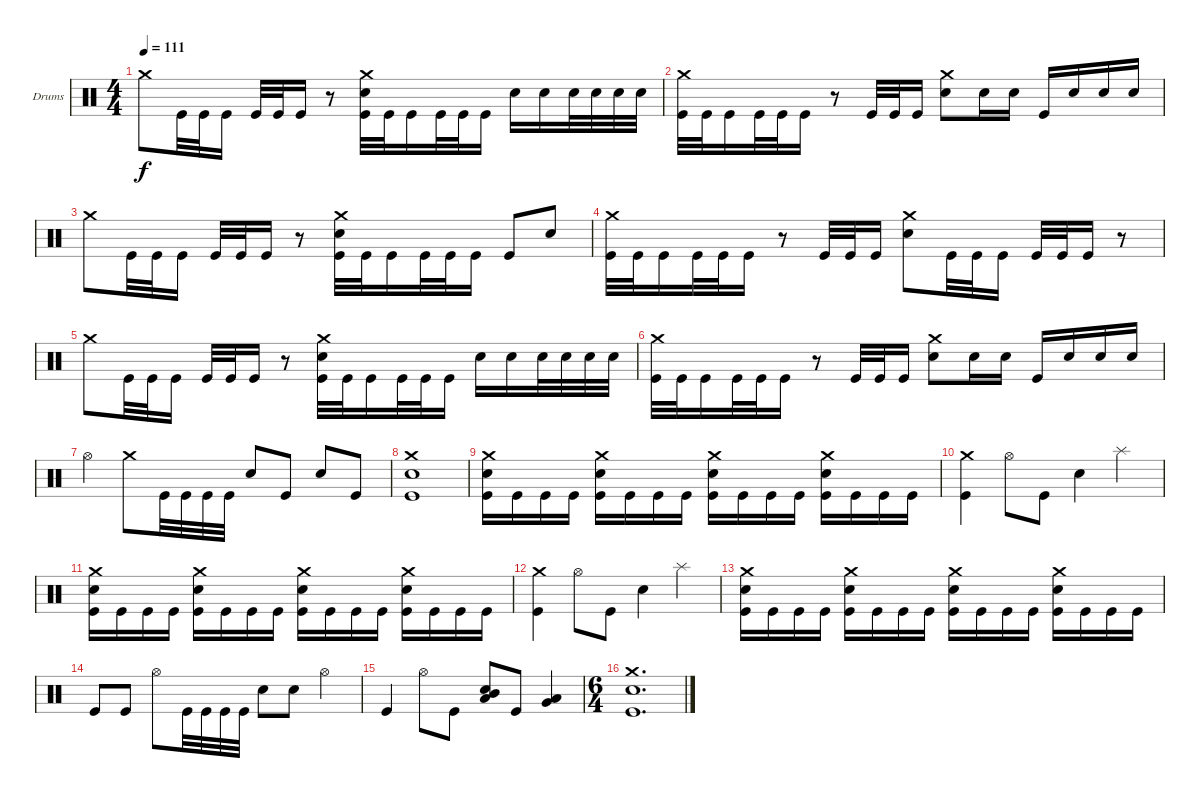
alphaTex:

\bracketExtendMode groupsimilarinstruments
\firstSystemTrackNameOrientation horizontal
\otherSystemsTrackNameOrientation horizontal
\track ("Drumkit" "Drums") {instrument percussion}
\staff {score}
\articulation defaults
\ts (4 4)
\tempo 111
\clef neutral
\ks c "Crash medium (hit)".8{dy f} "Kick (hit)".32 "Kick (hit)".32 "Kick (hit)".16 "Kick (hit)".32 "Kick (hit)".32 "Kick (hit)".16
r.8 ("Crash medium (hit)" "Snare (hit) 2" "Kick (hit)").32 "Kick (hit)".32 "Kick (hit)".16 "Kick (hit)".32 "Kick (hit)".32 "Kick (hit)".16 "Snare (hit) 2".16 "Snare (hit) 2".16 "Snare (hit) 2".32 "Snare (hit) 2".32 "Snare (hit) 2".32 "Snare (hit) 2".32 |
("Crash medium (hit)" "Kick (hit)").32 "Kick (hit)".32 "Kick (hit)".16 "Kick (hit)".32 "Kick (hit)".32 "Kick (hit)".16 r.8 "Kick (hit)".32 "Kick (hit)".32 "Kick (hit)".16 ("Crash medium (hit)" "Snare (hit) 2").8 "Snare (hit) 2".16 "Snare (hit) 2".16 "Kick (hit)".16 "Snare (hit) 2".16 "Snare (hit) 2".16 "Snare (hit) 2".16 |
"Crash medium (hit)".8 "Kick (hit)".32 "Kick (hit)".32 "Kick (hit)".16 "Kick (hit)".32 "Kick (hit)".32 "Kick (hit)".16 r.8 ("Crash medium (hit)" "Snare (hit) 2" "Kick (hit)").32 "Kick (hit)".32 "Kick (hit)".16 "Kick (hit)".32 "Kick (hit)".32 "Kick (hit)".16 "Kick (hit)".8 "Snare (hit) 2".8 |
("Crash medium (hit)" "Kick (hit)").32 "Kick (hit)".32 "Kick (hit)".16 "Kick (hit)".32 "Kick (hit)".32 "Kick (hit)".16 r.8 "Kick (hit)".32 "Kick (hit)".32 "Kick (hit)".16 ("Crash medium (hit)" "Snare (hit) 2").8 "Kick (hit)".32 "Kick (hit)".32 "Kick (hit)".16 "Kick (hit)".32 "Kick (hit)".32 "Kick (hit)".16 r.8 |
"Crash medium (hit)".8 "Kick (hit)".32 "Kick (hit)".32 "Kick (hit)".16 "Kick (hit)".32 "Kick (hit)".32 "Kick (hit)".16 r.8 ("Crash medium (hit)" "Snare (hit) 2" "Kick (hit)").32 "Kick (hit)".32 "Kick (hit)".16 "Kick (hit)".32 "Kick (hit)".32 "Kick (hit)".16 "Snare (hit) 2".16 "Snare (hit) 2".16 "Snare (hit) 2".32 "Snare (hit) 2".32 "Snare (hit) 2".32 "Snare (hit) 2".32 |
("Crash medium (hit)" "Kick (hit)").32 "Kick (hit)".32 "Kick (hit)".16 "Kick (hit)".32 "Kick (hit)".32 "Kick (hit)".16 r.8 "Kick (hit)".32 "Kick (hit)".32 "Kick (hit)".16 ("Crash medium (hit)" "Snare (hit) 2").8 "Snare (hit) 2".16 "Snare (hit) 2".16 "Kick (hit)".16 "Snare (hit) 2".16 "Snare (hit) 2".16 "Snare (hit) 2".16 |
"Hi-Hat (open)".4 "Crash medium (hit)".8 "Kick (hit)".32 "Kick (hit)".32 "Kick (hit)".32 "Kick (hit)".32 "Snare (hit) 2".8 "Kick (hit)".8 "Snare (hit) 2".8 "Kick (hit)".8 |
("Crash medium (hit)" "Snare (hit) 2" "Kick (hit)").1 |
("Crash medium (hit)" "Snare (hit) 2" "Kick (hit)").16 "Kick (hit)".16 "Kick (hit)".16 "Kick (hit)".16 ("Crash medium (hit)" "Snare (hit) 2" "Kick (hit)").16 "Kick (hit)".16 "Kick (hit)".16 "Kick (hit)".16 ("Crash medium (hit)" "Snare (hit) 2" "Kick (hit)").16 "Kick (hit)".16 "Kick (hit)".16 "Kick (hit)".16 ("Crash medium (hit)" "Snare (hit) 2" "Kick (hit)").16 "Kick (hit)".16 "Kick (hit)".16 "Kick (hit)".16 |
("Crash medium (hit)" "Kick (hit)").4 "Hi-Hat (open)".8 "Kick (hit)".8 "Snare (hit) 2".4 "Splash (hit)".4 |
("Crash medium (hit)" "Snare (hit) 2" "Kick (hit)").16 "Kick (hit)".16 "Kick (hit)".16 "Kick (hit)".16 ("Crash medium (hit)" "Snare (hit) 2" "Kick (hit)").16 "Kick (hit)".16 "Kick (hit)".16 "Kick (hit)".16 ("Crash medium (hit)" "Snare (hit) 2" "Kick (hit)").16 "Kick (hit)".16 "Kick (hit)".16 "Kick (hit)".16 ("Crash medium (hit)" "Snare (hit) 2" "Kick (hit)").16 "Kick (hit)".16 "Kick (hit)".16 "Kick (hit)".16 |
("Crash medium (hit)" "Kick (hit)").4 "Hi-Hat (open)".8 "Kick (hit)".8 "Snare (hit) 2".4 "Splash (hit)".4 |
("Crash medium (hit)" "Snare (hit) 2" "Kick (hit)").16 "Kick (hit)".16 "Kick (hit)".16 "Kick (hit)".16 ("Crash medium (hit)" "Snare (hit) 2" "Kick (hit)").16 "Kick (hit)".16 "Kick (hit)".16 "Kick (hit)".16 ("Crash medium (hit)" "Snare (hit) 2" "Kick (hit)").16 "Kick (hit)".16 "Kick (hit)".16 "Kick (hit)".16 ("Crash medium (hit)" "Snare (hit) 2" "Kick (hit)").16 "Kick (hit)".16 "Kick (hit)".16 "Kick (hit)".16 |
"Kick (hit)".8 "Kick (hit)".8 "Hi-Hat (open)".8 "Kick (hit)".32 "Kick (hit)".32 "Kick (hit)".32 "Kick (hit)".32 "Snare (hit) 2".8 "Snare (hit) 2".8 "Hi-Hat (open)".4 |
"Kick (hit)".4 "Hi-Hat (open)".8 "Kick (hit)".8 ("Snare (hit) 2" "Mid Tom (hit)" "Low Tom (hit)").8 "Kick (hit)".8 ("Very Low Tom (hit)" "Low Tom (hit)").4 |
\ts (6 4)
\beaming (8 6 6)
("Crash medium (hit)" "Snare (hit) 2" "Kick (hit)").1{d}
